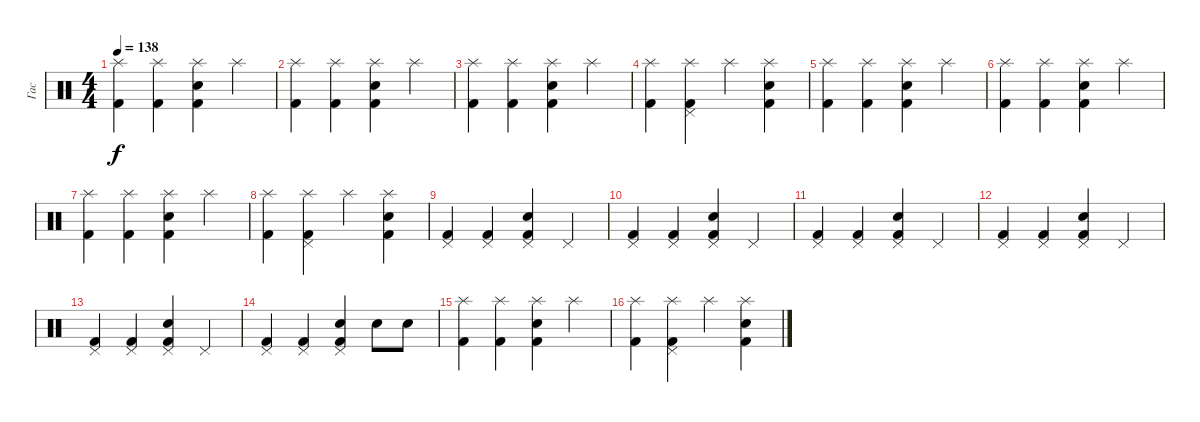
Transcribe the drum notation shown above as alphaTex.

\track ("Гас" "Гас") {instrument percussion}
\staff {score}
\articulation defaults
\ts (4 4)
\tempo 138
\clef neutral
\ks c
("Splash (hit)" "Kick (hit) 2").4{dy f} ("Splash (hit)" "Kick (hit) 2").4 ("Splash (hit)" "Electric Snare (hit)" "Kick (hit) 2").4 "Splash (hit)".4 |
("Splash (hit)" "Kick (hit) 2").4 ("Splash (hit)" "Kick (hit) 2").4 ("Splash (hit)" "Electric Snare (hit)" "Kick (hit) 2").4 "Splash (hit)".4 |
("Splash (hit)" "Kick (hit) 2").4 ("Splash (hit)" "Kick (hit) 2").4 ("Splash (hit)" "Electric Snare (hit)" "Kick (hit) 2").4 "Splash (hit)".4 |
("Splash (hit)" "Kick (hit) 2").4 ("Splash (hit)" "Pedal Hi-Hat (hit)" "Kick (hit) 2").4 "Splash (hit)".4 ("Splash (hit)" "Electric Snare (hit)" "Kick (hit) 2").4 |
("Splash (hit)" "Kick (hit) 2").4 ("Splash (hit)" "Kick (hit) 2").4 ("Splash (hit)" "Electric Snare (hit)" "Kick (hit) 2").4 "Splash (hit)".4 |
("Splash (hit)" "Kick (hit) 2").4 ("Splash (hit)" "Kick (hit) 2").4 ("Splash (hit)" "Electric Snare (hit)" "Kick (hit) 2").4 "Splash (hit)".4 |
("Splash (hit)" "Kick (hit) 2").4 ("Splash (hit)" "Kick (hit) 2").4 ("Splash (hit)" "Electric Snare (hit)" "Kick (hit) 2").4 "Splash (hit)".4 |
("Splash (hit)" "Kick (hit) 2").4 ("Splash (hit)" "Pedal Hi-Hat (hit)" "Kick (hit) 2").4 "Splash (hit)".4 ("Splash (hit)" "Electric Snare (hit)" "Kick (hit) 2").4 |
("Pedal Hi-Hat (hit)" "Kick (hit) 2").4 ("Pedal Hi-Hat (hit)" "Kick (hit) 2").4 ("Pedal Hi-Hat (hit)" "Electric Snare (hit)" "Kick (hit) 2").4 "Pedal Hi-Hat (hit)".4 |
("Pedal Hi-Hat (hit)" "Kick (hit) 2").4 ("Pedal Hi-Hat (hit)" "Kick (hit) 2").4 ("Pedal Hi-Hat (hit)" "Electric Snare (hit)" "Kick (hit) 2").4 "Pedal Hi-Hat (hit)".4 |
("Pedal Hi-Hat (hit)" "Kick (hit) 2").4 ("Pedal Hi-Hat (hit)" "Kick (hit) 2").4 ("Pedal Hi-Hat (hit)" "Electric Snare (hit)" "Kick (hit) 2").4 "Pedal Hi-Hat (hit)".4 |
("Pedal Hi-Hat (hit)" "Kick (hit) 2").4 ("Pedal Hi-Hat (hit)" "Kick (hit) 2").4 ("Pedal Hi-Hat (hit)" "Electric Snare (hit)" "Kick (hit) 2").4 "Pedal Hi-Hat (hit)".4 |
("Pedal Hi-Hat (hit)" "Kick (hit) 2").4 ("Pedal Hi-Hat (hit)" "Kick (hit) 2").4 ("Pedal Hi-Hat (hit)" "Electric Snare (hit)" "Kick (hit) 2").4 "Pedal Hi-Hat (hit)".4 |
("Pedal Hi-Hat (hit)" "Kick (hit) 2").4 ("Pedal Hi-Hat (hit)" "Kick (hit) 2").4 ("Pedal Hi-Hat (hit)" "Electric Snare (hit)" "Kick (hit) 2").4 "Electric Snare (hit)".8 "Electric Snare (hit)".8 |
("Splash (hit)" "Kick (hit) 2").4 ("Splash (hit)" "Kick (hit) 2").4 ("Splash (hit)" "Electric Snare (hit)" "Kick (hit) 2").4 "Splash (hit)".4 |
("Splash (hit)" "Kick (hit) 2").4 ("Splash (hit)" "Pedal Hi-Hat (hit)" "Kick (hit) 2").4 "Splash (hit)".4 ("Splash (hit)" "Electric Snare (hit)" "Kick (hit) 2").4
